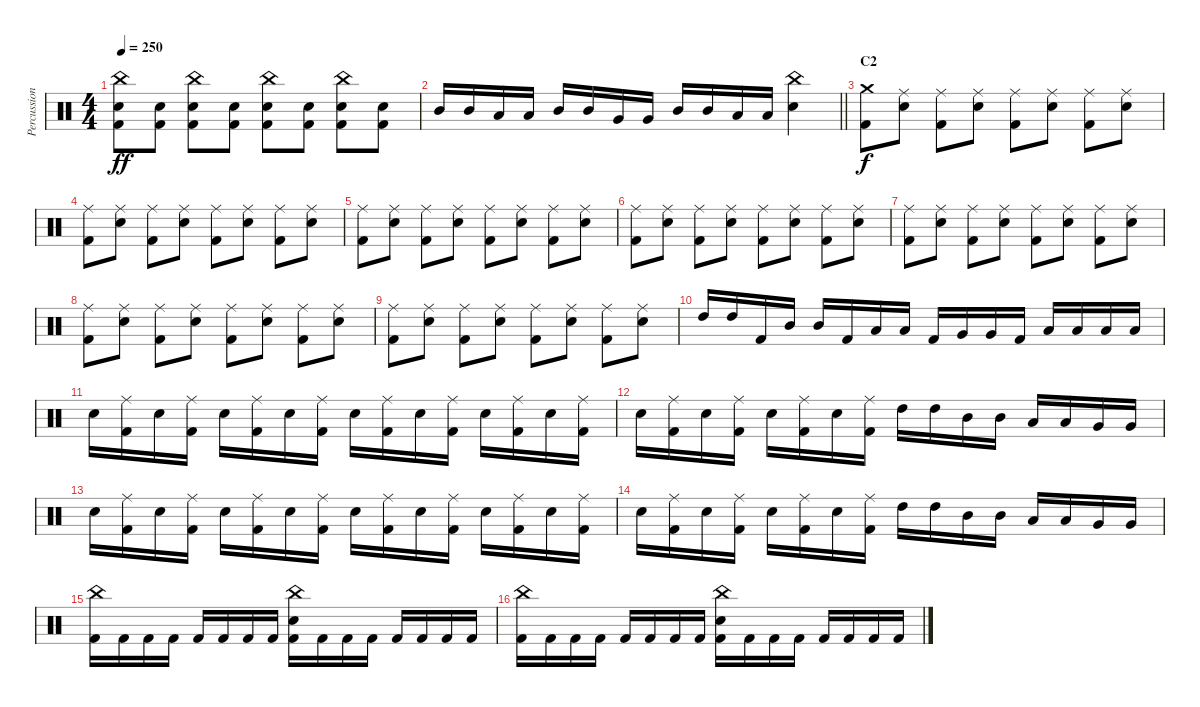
\track ("Percussions" "Percussion") {instrument percussion}
\staff {score}
\articulation defaults
\ts (4 4)
\tempo 250
\clef neutral
\ks c
("China (hit)" "Electric Snare (hit)" "Kick (hit) 2").8{dy ff} ("Electric Snare (hit)" "Kick (hit) 2").8 ("China (hit)" "Electric Snare (hit)" "Kick (hit) 2").8 ("Electric Snare (hit)" "Kick (hit) 2").8 ("China (hit)" "Electric Snare (hit)" "Kick (hit) 2").8 ("Electric Snare (hit)" "Kick (hit) 2").8 ("China (hit)" "Electric Snare (hit)" "Kick (hit) 2").8 ("Electric Snare (hit)" "Kick (hit) 2").8 |
\barLineRight lightlight "Mid Tom (hit)".16 "Mid Tom (hit)".16 "Low Tom (hit)".16 "Low Tom (hit)".16 "Mid Tom (hit)".16 "Mid Tom (hit)".16 "Very Low Tom (hit)".16 "Very Low Tom (hit)".16 "Mid Tom (hit)".16 "Mid Tom (hit)".16 "Low Floor Tom (hit)".16 "Low Floor Tom (hit)".16
("China (hit)" "Electric Snare (hit)").4 |
\section ("" "C2")
("Crash medium (hit)" "Kick (hit) 2").8{dy f} ("Ride (middle)" "Electric Snare (hit)").8 ("Ride (middle)" "Kick (hit) 2").8 ("Ride (middle)" "Electric Snare (hit)").8 ("Ride (middle)" "Kick (hit) 2").8 ("Ride (middle)" "Electric Snare (hit)").8 ("Ride (middle)" "Kick (hit) 2").8 ("Ride (middle)" "Electric Snare (hit)").8 |
("Ride (middle)" "Kick (hit) 2").8 ("Ride (middle)" "Electric Snare (hit)").8 ("Ride (middle)" "Kick (hit) 2").8 ("Ride (middle)" "Electric Snare (hit)").8 ("Ride (middle)" "Kick (hit) 2").8 ("Ride (middle)" "Electric Snare (hit)").8 ("Ride (middle)" "Kick (hit) 2").8 ("Ride (middle)" "Electric Snare (hit)").8 |
("Ride (middle)" "Kick (hit) 2").8 ("Ride (middle)" "Electric Snare (hit)").8 ("Ride (middle)" "Kick (hit) 2").8 ("Ride (middle)" "Electric Snare (hit)").8 ("Ride (middle)" "Kick (hit) 2").8 ("Ride (middle)" "Electric Snare (hit)").8 ("Ride (middle)" "Kick (hit) 2").8 ("Ride (middle)" "Electric Snare (hit)").8 |
("Ride (middle)" "Kick (hit) 2").8 ("Ride (middle)" "Electric Snare (hit)").8 ("Ride (middle)" "Kick (hit) 2").8 ("Ride (middle)" "Electric Snare (hit)").8 ("Ride (middle)" "Kick (hit) 2").8 ("Ride (middle)" "Electric Snare (hit)").8 ("Ride (middle)" "Kick (hit) 2").8 ("Ride (middle)" "Electric Snare (hit)").8 |
("Ride (middle)" "Kick (hit) 2").8 ("Ride (middle)" "Electric Snare (hit)").8 ("Ride (middle)" "Kick (hit) 2").8 ("Ride (middle)" "Electric Snare (hit)").8 ("Ride (middle)" "Kick (hit) 2").8 ("Ride (middle)" "Electric Snare (hit)").8 ("Ride (middle)" "Kick (hit) 2").8 ("Ride (middle)" "Electric Snare (hit)").8 |
("Ride (middle)" "Kick (hit) 2").8 ("Ride (middle)" "Electric Snare (hit)").8 ("Ride (middle)" "Kick (hit) 2").8 ("Ride (middle)" "Electric Snare (hit)").8 ("Ride (middle)" "Kick (hit) 2").8 ("Ride (middle)" "Electric Snare (hit)").8 ("Ride (middle)" "Kick (hit) 2").8 ("Ride (middle)" "Electric Snare (hit)").8 |
("Ride (middle)" "Kick (hit) 2").8 ("Ride (middle)" "Electric Snare (hit)").8 ("Ride (middle)" "Kick (hit) 2").8 ("Ride (middle)" "Electric Snare (hit)").8 ("Ride (middle)" "Kick (hit) 2").8 ("Ride (middle)" "Electric Snare (hit)").8 ("Ride (middle)" "Kick (hit) 2").8 ("Ride (middle)" "Electric Snare (hit)").8 |
"High Tom (hit)".16 "High Tom (hit)".16 "Kick (hit) 2".16 "Mid Tom (hit)".16 "Mid Tom (hit)".16 "Kick (hit) 2".16 "Low Tom (hit)".16 "Low Tom (hit)".16 "Kick (hit) 2".16 "Very Low Tom (hit)".16 "Very Low Tom (hit)".16 "Kick (hit) 2".16 "Low Floor Tom (hit)".16 "Low Floor Tom (hit)".16 "Low Floor Tom (hit)".16 "Low Floor Tom (hit)".16 |
"Electric Snare (hit)".16 ("Ride (middle)" "Kick (hit) 2").16 "Electric Snare (hit)".16 ("Ride (middle)" "Kick (hit) 2").16 "Electric Snare (hit)".16 ("Ride (middle)" "Kick (hit) 2").16 "Electric Snare (hit)".16 ("Ride (middle)" "Kick (hit) 2").16 "Electric Snare (hit)".16 ("Ride (middle)" "Kick (hit) 2").16 "Electric Snare (hit)".16 ("Ride (middle)" "Kick (hit) 2").16 "Electric Snare (hit)".16 ("Ride (middle)" "Kick (hit) 2").16 "Electric Snare (hit)".16 ("Ride (middle)" "Kick (hit) 2").16 |
"Electric Snare (hit)".16 ("Ride (middle)" "Kick (hit) 2").16 "Electric Snare (hit)".16 ("Ride (middle)" "Kick (hit) 2").16 "Electric Snare (hit)".16 ("Ride (middle)" "Kick (hit) 2").16 "Electric Snare (hit)".16 ("Ride (middle)" "Kick (hit) 2").16 "High Tom (hit)".16 "High Tom (hit)".16 "Mid Tom (hit)".16 "Mid Tom (hit)".16 "Low Tom (hit)".16 "Low Tom (hit)".16 "Very Low Tom (hit)".16 "Very Low Tom (hit)".16 |
"Electric Snare (hit)".16 ("Ride (middle)" "Kick (hit) 2").16 "Electric Snare (hit)".16 ("Ride (middle)" "Kick (hit) 2").16 "Electric Snare (hit)".16 ("Ride (middle)" "Kick (hit) 2").16 "Electric Snare (hit)".16 ("Ride (middle)" "Kick (hit) 2").16 "Electric Snare (hit)".16 ("Ride (middle)" "Kick (hit) 2").16 "Electric Snare (hit)".16 ("Ride (middle)" "Kick (hit) 2").16 "Electric Snare (hit)".16 ("Ride (middle)" "Kick (hit) 2").16 "Electric Snare (hit)".16 ("Ride (middle)" "Kick (hit) 2").16 |
"Electric Snare (hit)".16 ("Ride (middle)" "Kick (hit) 2").16 "Electric Snare (hit)".16 ("Ride (middle)" "Kick (hit) 2").16 "Electric Snare (hit)".16 ("Ride (middle)" "Kick (hit) 2").16 "Electric Snare (hit)".16 ("Ride (middle)" "Kick (hit) 2").16 "High Tom (hit)".16 "High Tom (hit)".16 "Mid Tom (hit)".16 "Mid Tom (hit)".16 "Low Tom (hit)".16 "Low Tom (hit)".16 "Very Low Tom (hit)".16 "Very Low Tom (hit)".16 |
("China (hit)" "Kick (hit) 2").16 "Kick (hit) 2".16 "Kick (hit) 2".16 "Kick (hit) 2".16 "Kick (hit) 2".16 "Kick (hit) 2".16 "Kick (hit) 2".16 "Kick (hit) 2".16 ("China (hit)" "Electric Snare (hit)" "Kick (hit) 2").16 "Kick (hit) 2".16 "Kick (hit) 2".16 "Kick (hit) 2".16 "Kick (hit) 2".16 "Kick (hit) 2".16 "Kick (hit) 2".16 "Kick (hit) 2".16 |
("China (hit)" "Kick (hit) 2").16 "Kick (hit) 2".16 "Kick (hit) 2".16 "Kick (hit) 2".16 "Kick (hit) 2".16 "Kick (hit) 2".16 "Kick (hit) 2".16 "Kick (hit) 2".16 ("China (hit)" "Electric Snare (hit)" "Kick (hit) 2").16 "Kick (hit) 2".16 "Kick (hit) 2".16 "Kick (hit) 2".16 "Kick (hit) 2".16 "Kick (hit) 2".16 "Kick (hit) 2".16 "Kick (hit) 2".16
